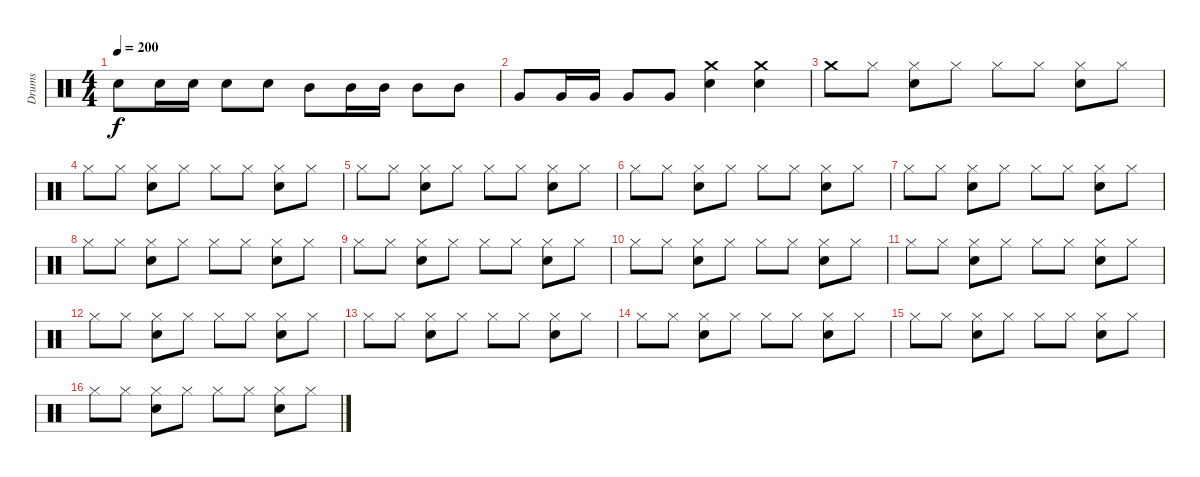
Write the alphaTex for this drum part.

\track ("Drums" "Drums") {instrument percussion}
\staff {score}
\articulation defaults
\ts (4 4)
\tempo 200
\clef neutral
\ks c "Snare (hit) 2".8{dy f} "Snare (hit) 2".16 "Snare (hit) 2".16 "Snare (hit) 2".8 "Snare (hit) 2".8 "Mid Tom (hit)".8 "Mid Tom (hit)".16 "Mid Tom (hit)".16 "Mid Tom (hit)".8 "Mid Tom (hit)".8
|
"Very Low Tom (hit)".8 "Very Low Tom (hit)".16 "Very Low Tom (hit)".16 "Very Low Tom (hit)".8 "Very Low Tom (hit)".8 ("Crash medium (hit)" "Snare (hit) 2").4 ("Crash medium (hit)" "Snare (hit) 2").4 |
"Crash medium (hit)".8 "Hi-Hat (closed)".8 ("Hi-Hat (closed)" "Snare (hit) 2").8 "Hi-Hat (closed)".8 "Hi-Hat (closed)".8 "Hi-Hat (closed)".8 ("Hi-Hat (closed)" "Snare (hit) 2").8 "Hi-Hat (closed)".8 |
"Hi-Hat (closed)".8 "Hi-Hat (closed)".8 ("Hi-Hat (closed)" "Snare (hit) 2").8 "Hi-Hat (closed)".8 "Hi-Hat (closed)".8 "Hi-Hat (closed)".8 ("Hi-Hat (closed)" "Snare (hit) 2").8 "Hi-Hat (closed)".8 |
"Hi-Hat (closed)".8 "Hi-Hat (closed)".8 ("Hi-Hat (closed)" "Snare (hit) 2").8 "Hi-Hat (closed)".8 "Hi-Hat (closed)".8 "Hi-Hat (closed)".8 ("Hi-Hat (closed)" "Snare (hit) 2").8 "Hi-Hat (closed)".8 |
"Hi-Hat (closed)".8 "Hi-Hat (closed)".8 ("Hi-Hat (closed)" "Snare (hit) 2").8 "Hi-Hat (closed)".8 "Hi-Hat (closed)".8 "Hi-Hat (closed)".8 ("Hi-Hat (closed)" "Snare (hit) 2").8 "Hi-Hat (closed)".8 |
"Hi-Hat (closed)".8 "Hi-Hat (closed)".8 ("Hi-Hat (closed)" "Snare (hit) 2").8 "Hi-Hat (closed)".8 "Hi-Hat (closed)".8 "Hi-Hat (closed)".8 ("Hi-Hat (closed)" "Snare (hit) 2").8 "Hi-Hat (closed)".8 |
"Hi-Hat (closed)".8 "Hi-Hat (closed)".8 ("Hi-Hat (closed)" "Snare (hit) 2").8 "Hi-Hat (closed)".8 "Hi-Hat (closed)".8 "Hi-Hat (closed)".8 ("Hi-Hat (closed)" "Snare (hit) 2").8 "Hi-Hat (closed)".8 |
"Hi-Hat (closed)".8 "Hi-Hat (closed)".8 ("Hi-Hat (closed)" "Snare (hit) 2").8 "Hi-Hat (closed)".8 "Hi-Hat (closed)".8 "Hi-Hat (closed)".8 ("Hi-Hat (closed)" "Snare (hit) 2").8 "Hi-Hat (closed)".8 |
"Hi-Hat (closed)".8 "Hi-Hat (closed)".8 ("Hi-Hat (closed)" "Snare (hit) 2").8 "Hi-Hat (closed)".8 "Hi-Hat (closed)".8 "Hi-Hat (closed)".8 ("Hi-Hat (closed)" "Snare (hit) 2").8 "Hi-Hat (closed)".8 |
"Hi-Hat (closed)".8 "Hi-Hat (closed)".8 ("Hi-Hat (closed)" "Snare (hit) 2").8 "Hi-Hat (closed)".8 "Hi-Hat (closed)".8 "Hi-Hat (closed)".8 ("Hi-Hat (closed)" "Snare (hit) 2").8 "Hi-Hat (closed)".8 |
"Hi-Hat (closed)".8 "Hi-Hat (closed)".8 ("Hi-Hat (closed)" "Snare (hit) 2").8 "Hi-Hat (closed)".8 "Hi-Hat (closed)".8 "Hi-Hat (closed)".8 ("Hi-Hat (closed)" "Snare (hit) 2").8 "Hi-Hat (closed)".8 |
"Hi-Hat (closed)".8 "Hi-Hat (closed)".8 ("Hi-Hat (closed)" "Snare (hit) 2").8 "Hi-Hat (closed)".8 "Hi-Hat (closed)".8 "Hi-Hat (closed)".8 ("Hi-Hat (closed)" "Snare (hit) 2").8 "Hi-Hat (closed)".8 |
"Hi-Hat (closed)".8 "Hi-Hat (closed)".8 ("Hi-Hat (closed)" "Snare (hit) 2").8 "Hi-Hat (closed)".8 "Hi-Hat (closed)".8 "Hi-Hat (closed)".8 ("Hi-Hat (closed)" "Snare (hit) 2").8 "Hi-Hat (closed)".8 |
"Hi-Hat (closed)".8 "Hi-Hat (closed)".8 ("Hi-Hat (closed)" "Snare (hit) 2").8 "Hi-Hat (closed)".8 "Hi-Hat (closed)".8 "Hi-Hat (closed)".8 ("Hi-Hat (closed)" "Snare (hit) 2").8 "Hi-Hat (closed)".8 |
"Hi-Hat (closed)".8 "Hi-Hat (closed)".8 ("Hi-Hat (closed)" "Snare (hit) 2").8 "Hi-Hat (closed)".8 "Hi-Hat (closed)".8 "Hi-Hat (closed)".8 ("Hi-Hat (closed)" "Snare (hit) 2").8 "Hi-Hat (closed)".8
